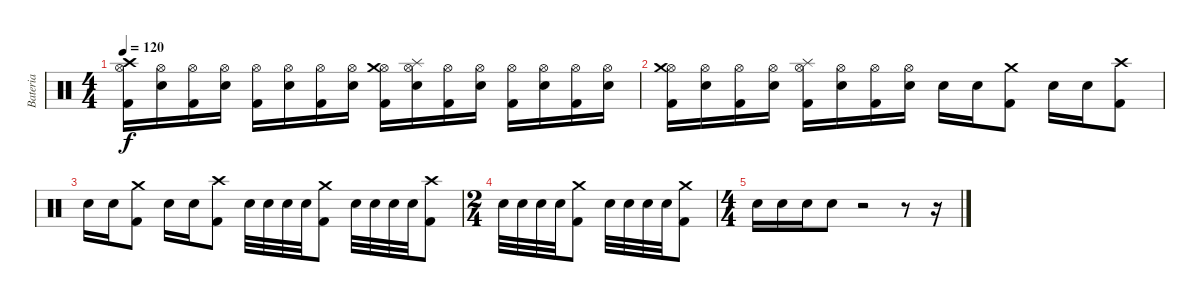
\track ("Bateria" "Bateria") {instrument percussion}
\staff {score}
\articulation defaults
\ts (4 4)
\tempo 120
\clef neutral
\ks c
("Kick (hit) 2" "Hi-Hat (open)" "Crash high (hit)").16{dy f} ("Electric Snare (hit)" "Hi-Hat (open)").16 ("Kick (hit) 2" "Hi-Hat (open)").16 ("Electric Snare (hit)" "Hi-Hat (open)").16 ("Kick (hit) 2" "Hi-Hat (open)").16 ("Electric Snare (hit)" "Hi-Hat (open)").16 ("Kick (hit) 2" "Hi-Hat (open)").16 ("Electric Snare (hit)" "Hi-Hat (open)").16 ("Kick (hit) 2" "Hi-Hat (open)" "Crash medium (hit)").16 ("Electric Snare (hit)" "Hi-Hat (open)" "Splash (hit)").16 ("Kick (hit) 2" "Hi-Hat (open)").16 ("Electric Snare (hit)" "Hi-Hat (open)").16 ("Kick (hit) 2" "Hi-Hat (open)").16 ("Electric Snare (hit)" "Hi-Hat (open)").16 ("Kick (hit) 2" "Hi-Hat (open)").16 ("Electric Snare (hit)" "Hi-Hat (open)").16 |
("Kick (hit) 2" "Hi-Hat (open)" "Crash medium (hit)").16 ("Electric Snare (hit)" "Hi-Hat (open)").16 ("Kick (hit) 2" "Hi-Hat (open)").16 ("Electric Snare (hit)" "Hi-Hat (open)").16 ("Kick (hit) 2" "Hi-Hat (open)" "Splash (hit)").16 ("Electric Snare (hit)" "Hi-Hat (open)").16 ("Kick (hit) 2" "Hi-Hat (open)").16 ("Electric Snare (hit)" "Hi-Hat (open)").16 "Electric Snare (hit)".16 "Electric Snare (hit)".16 ("Kick (hit) 2" "Crash medium (hit)").8 "Electric Snare (hit)".16 "Electric Snare (hit)".16 ("Kick (hit) 2" "Crash high (hit)").8 |
"Electric Snare (hit)".16 "Electric Snare (hit)".16 ("Kick (hit) 2" "Crash medium (hit)").8 "Electric Snare (hit)".16 "Electric Snare (hit)".16 ("Kick (hit) 2" "Crash high (hit)").8 "Electric Snare (hit)".32 "Electric Snare (hit)".32 "Electric Snare (hit)".32 "Electric Snare (hit)".32 ("Kick (hit) 2" "Crash medium (hit)").8 "Electric Snare (hit)".32 "Electric Snare (hit)".32 "Electric Snare (hit)".32 "Electric Snare (hit)".32 ("Kick (hit) 2" "Crash high (hit)").8 |
\ts (2 4)
"Electric Snare (hit)".32 "Electric Snare (hit)".32 "Electric Snare (hit)".32 "Electric Snare (hit)".32 ("Kick (hit) 2" "Crash medium (hit)").8 "Electric Snare (hit)".32 "Electric Snare (hit)".32 "Electric Snare (hit)".32 "Electric Snare (hit)".32 ("Kick (hit) 2" "Crash medium (hit)").8 |
\ts (4 4)
"Electric Snare (hit)".16 "Electric Snare (hit)".16 "Electric Snare (hit)".16 "Electric Snare (hit)".8 r.2 r.8 r.16
